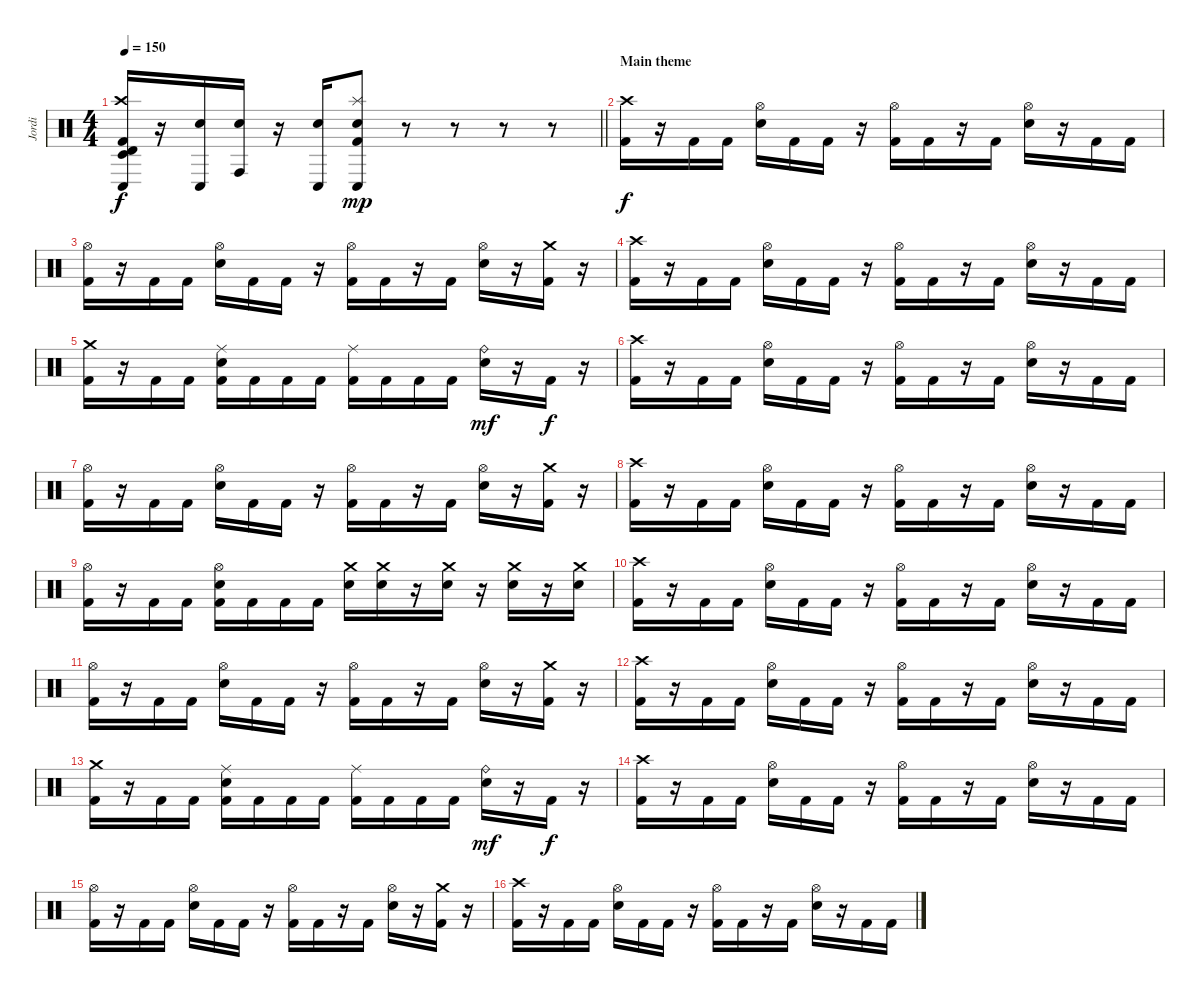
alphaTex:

\track ("Jordi" "Jordi") {instrument percussion}
\staff {score}
\articulation defaults
\ts (4 4)
\tempo 150
\clef neutral
\barLineRight lightlight
\ks c
("Crash high (hit)" "Conga low (hit)" "Timbale high (hit)" "Timbale low (hit)" "Kick (hit) 2").16{dy f} r.16 ("Conga low (hit)" "Snare (hit) 2").16 ("Conga high (hit)" "Snare (hit) 2").16 r.16 ("Conga low (hit)" "Snare (hit) 2").16 ("Splash (hit)" "Conga low (hit)" "Snare (hit) 2" "Kick (hit) 2").8{dy mp} r.8 r.8 r.8 r.8 |
\section ("" "Main theme")
("Crash high (hit)" "Kick (hit) 2").16{dy f} r.16 "Kick (hit) 2".16 "Kick (hit) 2".16 ("Hi-Hat (open)" "Snare (hit) 2").16 "Kick (hit) 2".16 "Kick (hit) 2".16 r.16 ("Hi-Hat (open)" "Kick (hit) 2").16 "Kick (hit) 2".16 r.16 "Kick (hit) 2".16 ("Hi-Hat (open)" "Snare (hit) 2").16 r.16 "Kick (hit) 2".16 "Kick (hit) 2".16 |
("Hi-Hat (open)" "Kick (hit) 2").16 r.16 "Kick (hit) 2".16 "Kick (hit) 2".16 ("Hi-Hat (open)" "Snare (hit) 2").16 "Kick (hit) 2".16 "Kick (hit) 2".16 r.16 ("Hi-Hat (open)" "Kick (hit) 2").16 "Kick (hit) 2".16 r.16 "Kick (hit) 2".16 ("Hi-Hat (open)" "Snare (hit) 2").16 r.16 ("Crash medium (hit)" "Kick (hit) 2").16 r.16 |
("Crash high (hit)" "Kick (hit) 2").16 r.16 "Kick (hit) 2".16 "Kick (hit) 2".16 ("Hi-Hat (open)" "Snare (hit) 2").16 "Kick (hit) 2".16 "Kick (hit) 2".16 r.16 ("Hi-Hat (open)" "Kick (hit) 2").16 "Kick (hit) 2".16 r.16 "Kick (hit) 2".16 ("Hi-Hat (open)" "Snare (hit) 2").16 r.16 "Kick (hit) 2".16 "Kick (hit) 2".16 |
("Crash medium (hit)" "Kick (hit) 2").16 r.16 "Kick (hit) 2".16 "Kick (hit) 2".16 ("Ride (middle)" "Snare (hit) 2" "Kick (hit) 2").16 "Kick (hit) 2".16 "Kick (hit) 2".16 "Kick (hit) 2".16 ("Ride (middle)" "Kick (hit) 2").16 "Kick (hit) 2".16 "Kick (hit) 2".16 "Kick (hit) 2".16 ("Ride (bell)" "Snare (hit) 2").16{dy mf} r.16 "Kick (hit) 2".16{dy f} r.16 |
("Crash high (hit)" "Kick (hit) 2").16 r.16 "Kick (hit) 2".16 "Kick (hit) 2".16 ("Hi-Hat (open)" "Snare (hit) 2").16 "Kick (hit) 2".16 "Kick (hit) 2".16 r.16 ("Hi-Hat (open)" "Kick (hit) 2").16 "Kick (hit) 2".16 r.16 "Kick (hit) 2".16 ("Hi-Hat (open)" "Snare (hit) 2").16 r.16 "Kick (hit) 2".16 "Kick (hit) 2".16 |
("Hi-Hat (open)" "Kick (hit) 2").16 r.16 "Kick (hit) 2".16 "Kick (hit) 2".16 ("Hi-Hat (open)" "Snare (hit) 2").16 "Kick (hit) 2".16 "Kick (hit) 2".16 r.16 ("Hi-Hat (open)" "Kick (hit) 2").16 "Kick (hit) 2".16 r.16 "Kick (hit) 2".16 ("Hi-Hat (open)" "Snare (hit) 2").16 r.16 ("Crash medium (hit)" "Kick (hit) 2").16 r.16 |
("Crash high (hit)" "Kick (hit) 2").16 r.16 "Kick (hit) 2".16 "Kick (hit) 2".16 ("Hi-Hat (open)" "Snare (hit) 2").16 "Kick (hit) 2".16 "Kick (hit) 2".16 r.16 ("Hi-Hat (open)" "Kick (hit) 2").16 "Kick (hit) 2".16 r.16 "Kick (hit) 2".16 ("Hi-Hat (open)" "Snare (hit) 2").16 r.16 "Kick (hit) 2".16 "Kick (hit) 2".16 |
("Hi-Hat (open)" "Kick (hit) 2").16 r.16 "Kick (hit) 2".16 "Kick (hit) 2".16 ("Hi-Hat (open)" "Snare (hit) 2" "Kick (hit) 2").16 "Kick (hit) 2".16 "Kick (hit) 2".16 "Kick (hit) 2".16 ("Crash medium (hit)" "Snare (hit) 2").16 ("Crash medium (hit)" "Snare (hit) 2").16 r.16 ("Crash medium (hit)" "Snare (hit) 2").16 r.16 ("Crash medium (hit)" "Snare (hit) 2").16 r.16 ("Crash medium (hit)" "Snare (hit) 2").16 |
("Crash high (hit)" "Kick (hit) 2").16 r.16 "Kick (hit) 2".16 "Kick (hit) 2".16 ("Hi-Hat (open)" "Snare (hit) 2").16 "Kick (hit) 2".16 "Kick (hit) 2".16 r.16 ("Hi-Hat (open)" "Kick (hit) 2").16 "Kick (hit) 2".16 r.16 "Kick (hit) 2".16 ("Hi-Hat (open)" "Snare (hit) 2").16 r.16 "Kick (hit) 2".16 "Kick (hit) 2".16 |
("Hi-Hat (open)" "Kick (hit) 2").16 r.16 "Kick (hit) 2".16 "Kick (hit) 2".16 ("Hi-Hat (open)" "Snare (hit) 2").16 "Kick (hit) 2".16 "Kick (hit) 2".16 r.16 ("Hi-Hat (open)" "Kick (hit) 2").16 "Kick (hit) 2".16 r.16 "Kick (hit) 2".16 ("Hi-Hat (open)" "Snare (hit) 2").16 r.16 ("Crash medium (hit)" "Kick (hit) 2").16 r.16 |
("Crash high (hit)" "Kick (hit) 2").16 r.16 "Kick (hit) 2".16 "Kick (hit) 2".16 ("Hi-Hat (open)" "Snare (hit) 2").16 "Kick (hit) 2".16 "Kick (hit) 2".16 r.16 ("Hi-Hat (open)" "Kick (hit) 2").16 "Kick (hit) 2".16 r.16 "Kick (hit) 2".16 ("Hi-Hat (open)" "Snare (hit) 2").16 r.16 "Kick (hit) 2".16 "Kick (hit) 2".16 |
("Crash medium (hit)" "Kick (hit) 2").16 r.16 "Kick (hit) 2".16 "Kick (hit) 2".16 ("Ride (middle)" "Snare (hit) 2" "Kick (hit) 2").16 "Kick (hit) 2".16 "Kick (hit) 2".16 "Kick (hit) 2".16 ("Ride (middle)" "Kick (hit) 2").16 "Kick (hit) 2".16 "Kick (hit) 2".16 "Kick (hit) 2".16 ("Ride (bell)" "Snare (hit) 2").16{dy mf} r.16 "Kick (hit) 2".16{dy f} r.16 |
("Crash high (hit)" "Kick (hit) 2").16 r.16 "Kick (hit) 2".16 "Kick (hit) 2".16 ("Hi-Hat (open)" "Snare (hit) 2").16 "Kick (hit) 2".16 "Kick (hit) 2".16 r.16 ("Hi-Hat (open)" "Kick (hit) 2").16 "Kick (hit) 2".16 r.16 "Kick (hit) 2".16 ("Hi-Hat (open)" "Snare (hit) 2").16 r.16 "Kick (hit) 2".16 "Kick (hit) 2".16 |
("Hi-Hat (open)" "Kick (hit) 2").16 r.16 "Kick (hit) 2".16 "Kick (hit) 2".16 ("Hi-Hat (open)" "Snare (hit) 2").16 "Kick (hit) 2".16 "Kick (hit) 2".16 r.16 ("Hi-Hat (open)" "Kick (hit) 2").16 "Kick (hit) 2".16 r.16 "Kick (hit) 2".16 ("Hi-Hat (open)" "Snare (hit) 2").16 r.16 ("Crash medium (hit)" "Kick (hit) 2").16 r.16 |
("Crash high (hit)" "Kick (hit) 2").16 r.16 "Kick (hit) 2".16 "Kick (hit) 2".16 ("Hi-Hat (open)" "Snare (hit) 2").16 "Kick (hit) 2".16 "Kick (hit) 2".16 r.16 ("Hi-Hat (open)" "Kick (hit) 2").16 "Kick (hit) 2".16 r.16 "Kick (hit) 2".16 ("Hi-Hat (open)" "Snare (hit) 2").16 r.16 "Kick (hit) 2".16 "Kick (hit) 2".16
